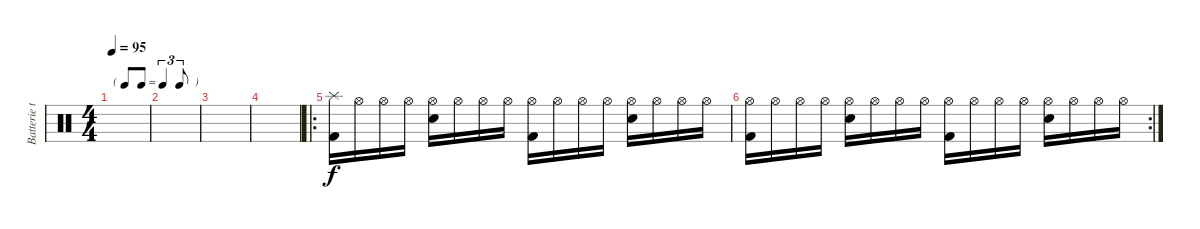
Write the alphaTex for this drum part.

\track ("Batterie treble" "Batterie t") {instrument percussion}
\staff {score}
\articulation defaults
\ts (4 4)
\tf triplet8th
\tempo 95
\clef neutral
\ks c
|
|
|
|
\ro
("Splash (hit)" "Kick (hit) 2").16{balance 16} "Hi-Hat (open)".16 "Hi-Hat (open)".16 "Hi-Hat (open)".16 ("Electric Snare (hit)" "Hi-Hat (open)").16 "Hi-Hat (open)".16 "Hi-Hat (open)".16 "Hi-Hat (open)".16 ("Hi-Hat (open)" "Kick (hit) 2").16 "Hi-Hat (open)".16 "Hi-Hat (open)".16 "Hi-Hat (open)".16 ("Electric Snare (hit)" "Hi-Hat (open)").16 "Hi-Hat (open)".16 "Hi-Hat (open)".16 "Hi-Hat (open)".16 |
\rc 2
("Hi-Hat (open)" "Kick (hit) 2").16 "Hi-Hat (open)".16 "Hi-Hat (open)".16 "Hi-Hat (open)".16 ("Electric Snare (hit)" "Hi-Hat (open)").16 "Hi-Hat (open)".16 "Hi-Hat (open)".16 "Hi-Hat (open)".16 ("Hi-Hat (open)" "Kick (hit) 2").16 "Hi-Hat (open)".16 "Hi-Hat (open)".16 "Hi-Hat (open)".16 ("Electric Snare (hit)" "Hi-Hat (open)").16 "Hi-Hat (open)".16 "Hi-Hat (open)".16 "Hi-Hat (open)".16
